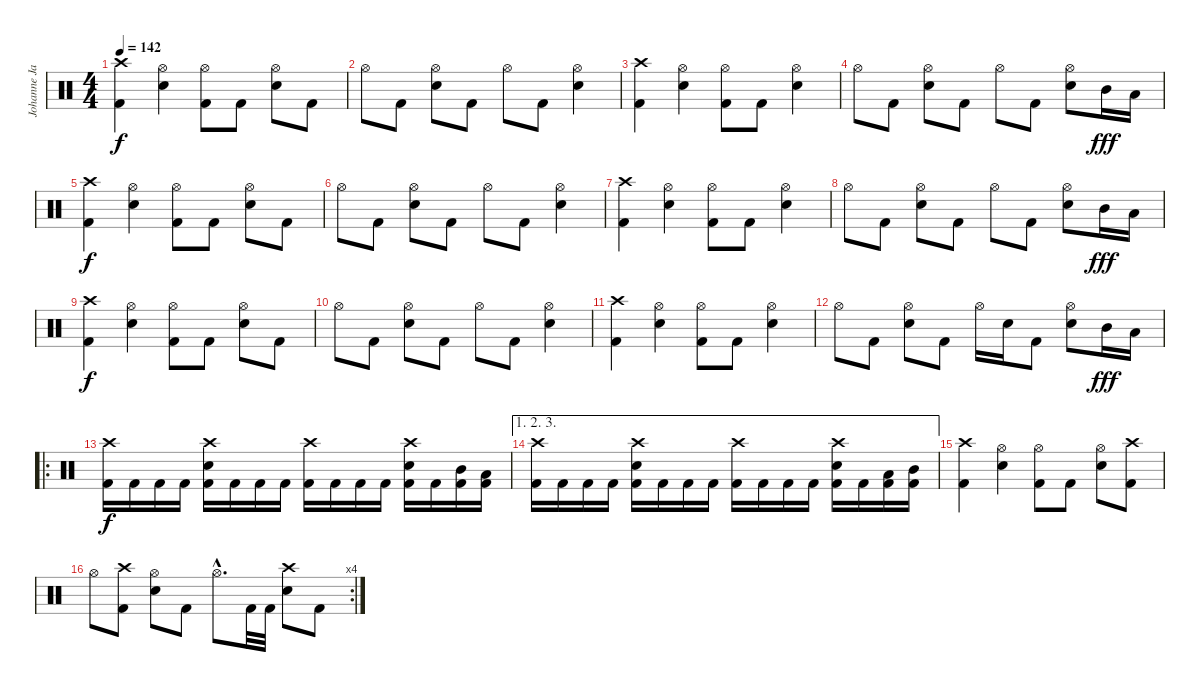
\track ("Johanne James" "Johanne Ja") {instrument percussion}
\staff {score}
\articulation defaults
\ts (4 4)
\tempo 142
\clef neutral
\ks c
("Crash high (hit)" "Kick (hit) 2").4{dy f} ("Hi-Hat (open)" "Snare (hit) 2").4 ("Hi-Hat (open)" "Kick (hit) 2").8 "Kick (hit) 2".8 ("Hi-Hat (open)" "Snare (hit) 2").8 "Kick (hit) 2".8 |
"Hi-Hat (open)".8 "Kick (hit) 2".8 ("Hi-Hat (open)" "Snare (hit) 2").8 "Kick (hit) 2".8 "Hi-Hat (open)".8 "Kick (hit) 2".8 ("Hi-Hat (open)" "Snare (hit) 2").4 |
("Crash high (hit)" "Kick (hit) 2").4 ("Hi-Hat (open)" "Snare (hit) 2").4 ("Hi-Hat (open)" "Kick (hit) 2").8 "Kick (hit) 2".8 ("Hi-Hat (open)" "Snare (hit) 2").4 |
"Hi-Hat (open)".8 "Kick (hit) 2".8 ("Hi-Hat (open)" "Snare (hit) 2").8 "Kick (hit) 2".8 "Hi-Hat (open)".8 "Kick (hit) 2".8 ("Hi-Hat (open)" "Snare (hit) 2").8 "Mid Tom (hit)".16{dy fff} "Low Tom (hit)".16 |
("Crash high (hit)" "Kick (hit) 2").4{dy f} ("Hi-Hat (open)" "Snare (hit) 2").4 ("Hi-Hat (open)" "Kick (hit) 2").8 "Kick (hit) 2".8 ("Hi-Hat (open)" "Snare (hit) 2").8 "Kick (hit) 2".8 |
"Hi-Hat (open)".8 "Kick (hit) 2".8 ("Hi-Hat (open)" "Snare (hit) 2").8 "Kick (hit) 2".8 "Hi-Hat (open)".8 "Kick (hit) 2".8 ("Hi-Hat (open)" "Snare (hit) 2").4 |
("Crash high (hit)" "Kick (hit) 2").4 ("Hi-Hat (open)" "Snare (hit) 2").4 ("Hi-Hat (open)" "Kick (hit) 2").8 "Kick (hit) 2".8 ("Hi-Hat (open)" "Snare (hit) 2").4 |
"Hi-Hat (open)".8 "Kick (hit) 2".8 ("Hi-Hat (open)" "Snare (hit) 2").8 "Kick (hit) 2".8 "Hi-Hat (open)".8 "Kick (hit) 2".8 ("Hi-Hat (open)" "Snare (hit) 2").8 "Mid Tom (hit)".16{dy fff} "Low Tom (hit)".16 |
("Crash high (hit)" "Kick (hit) 2").4{dy f} ("Hi-Hat (open)" "Snare (hit) 2").4 ("Hi-Hat (open)" "Kick (hit) 2").8 "Kick (hit) 2".8 ("Hi-Hat (open)" "Snare (hit) 2").8 "Kick (hit) 2".8 |
"Hi-Hat (open)".8 "Kick (hit) 2".8 ("Hi-Hat (open)" "Snare (hit) 2").8 "Kick (hit) 2".8 "Hi-Hat (open)".8 "Kick (hit) 2".8 ("Hi-Hat (open)" "Snare (hit) 2").4 |
("Crash high (hit)" "Kick (hit) 2").4 ("Hi-Hat (open)" "Snare (hit) 2").4 ("Hi-Hat (open)" "Kick (hit) 2").8 "Kick (hit) 2".8 ("Hi-Hat (open)" "Snare (hit) 2").4 |
"Hi-Hat (open)".8 "Kick (hit) 2".8 ("Hi-Hat (open)" "Snare (hit) 2").8 "Kick (hit) 2".8 "Hi-Hat (open)".16 "Snare (hit) 2".16 "Kick (hit) 2".8 ("Hi-Hat (open)" "Snare (hit) 2").8 "Mid Tom (hit)".16{dy fff} "Low Tom (hit)".16 |
\ro
("Crash high (hit)" "Kick (hit) 2").16{dy f} "Kick (hit) 2".16 "Kick (hit) 2".16 "Kick (hit) 2".16 ("Crash high (hit)" "Snare (hit) 2" "Kick (hit) 2").16 "Kick (hit) 2".16 "Kick (hit) 2".16 "Kick (hit) 2".16 ("Crash high (hit)" "Kick (hit) 2").16 "Kick (hit) 2".16 "Kick (hit) 2".16 "Kick (hit) 2".16 ("Crash high (hit)" "Snare (hit) 2" "Kick (hit) 2").16 "Kick (hit) 2".16 ("Mid Tom (hit)" "Kick (hit) 2").16 ("Low Tom (hit)" "Kick (hit) 2").16 |
\ae (1 2 3)
("Crash high (hit)" "Kick (hit) 2").16 "Kick (hit) 2".16 "Kick (hit) 2".16 "Kick (hit) 2".16 ("Crash high (hit)" "Snare (hit) 2" "Kick (hit) 2").16 "Kick (hit) 2".16 "Kick (hit) 2".16 "Kick (hit) 2".16 ("Crash high (hit)" "Kick (hit) 2").16 "Kick (hit) 2".16 "Kick (hit) 2".16 "Kick (hit) 2".16 ("Crash high (hit)" "Snare (hit) 2" "Kick (hit) 2").16 "Kick (hit) 2".16 ("Low Tom (hit)" "Kick (hit) 2").16 ("Mid Tom (hit)" "Kick (hit) 2").16 |
("Crash high (hit)" "Kick (hit) 2").4 ("Hi-Hat (open)" "Snare (hit) 2").4 ("Hi-Hat (open)" "Kick (hit) 2").8 "Kick (hit) 2".8 ("Hi-Hat (open)" "Snare (hit) 2").8 ("Crash high (hit)" "Kick (hit) 2").8 |
\rc 4 "Hi-Hat (open)".8
("Crash high (hit)" "Kick (hit) 2").8 ("Hi-Hat (open)" "Snare (hit) 2").8 "Kick (hit) 2".8 "Hi-Hat (open)"{hac}.8{d} "Kick (hit) 2".32 "Kick (hit) 2".32 ("Crash high (hit)" "Snare (hit) 2").8 "Kick (hit) 2".8
